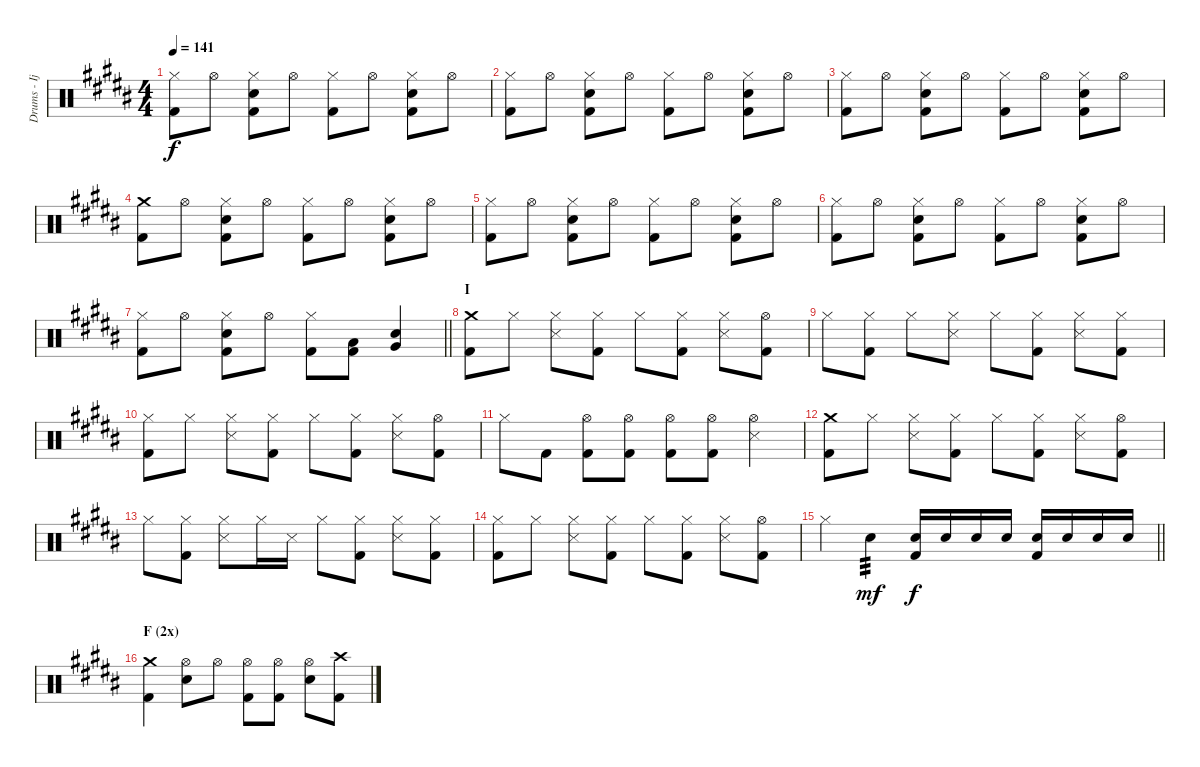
\track ("Drums - Ijichi" "Drums - Ij") {instrument percussion}
\staff {score}
\articulation defaults
\ts (4 4)
\tempo 141
\clef neutral
\ks b
("Hi-Hat (closed)" "Kick (hit) 2").8{dy f} "Hi-Hat (open)".8 ("Hi-Hat (closed)" "Electric Snare (hit)" "Kick (hit) 2").8 "Hi-Hat (open)".8 ("Hi-Hat (closed)" "Kick (hit) 2").8 "Hi-Hat (open)".8 ("Hi-Hat (closed)" "Electric Snare (hit)" "Kick (hit) 2").8 "Hi-Hat (open)".8 |
("Hi-Hat (closed)" "Kick (hit) 2").8 "Hi-Hat (open)".8 ("Hi-Hat (closed)" "Electric Snare (hit)" "Kick (hit) 2").8 "Hi-Hat (open)".8 ("Hi-Hat (closed)" "Kick (hit) 2").8 "Hi-Hat (open)".8 ("Hi-Hat (closed)" "Electric Snare (hit)" "Kick (hit) 2").8 "Hi-Hat (open)".8 |
("Hi-Hat (closed)" "Kick (hit) 2").8 "Hi-Hat (open)".8 ("Hi-Hat (closed)" "Electric Snare (hit)" "Kick (hit) 2").8 "Hi-Hat (open)".8 ("Hi-Hat (closed)" "Kick (hit) 2").8 "Hi-Hat (open)".8 ("Hi-Hat (closed)" "Electric Snare (hit)" "Kick (hit) 2").8 "Hi-Hat (open)".8 |
("Crash medium (hit)" "Kick (hit) 2").8 "Hi-Hat (open)".8 ("Hi-Hat (closed)" "Electric Snare (hit)" "Kick (hit) 2").8 "Hi-Hat (open)".8 ("Hi-Hat (closed)" "Kick (hit) 2").8 "Hi-Hat (open)".8 ("Hi-Hat (closed)" "Electric Snare (hit)" "Kick (hit) 2").8 "Hi-Hat (open)".8 |
("Hi-Hat (closed)" "Kick (hit) 2").8 "Hi-Hat (open)".8 ("Hi-Hat (closed)" "Electric Snare (hit)" "Kick (hit) 2").8 "Hi-Hat (open)".8 ("Hi-Hat (closed)" "Kick (hit) 2").8 "Hi-Hat (open)".8 ("Hi-Hat (closed)" "Electric Snare (hit)" "Kick (hit) 2").8 "Hi-Hat (open)".8 |
("Hi-Hat (closed)" "Kick (hit) 2").8 "Hi-Hat (open)".8 ("Hi-Hat (closed)" "Electric Snare (hit)" "Kick (hit) 2").8 "Hi-Hat (open)".8 ("Hi-Hat (closed)" "Kick (hit) 2").8 "Hi-Hat (open)".8 ("Hi-Hat (closed)" "Electric Snare (hit)" "Kick (hit) 2").8 "Hi-Hat (open)".8 |
\barLineRight lightlight
("Hi-Hat (closed)" "Kick (hit) 2").8 "Hi-Hat (open)".8 ("Hi-Hat (closed)" "Electric Snare (hit)" "Kick (hit) 2").8 "Hi-Hat (open)".8 ("Hi-Hat (closed)" "Kick (hit) 2").8 ("Low Tom (hit)" "Kick (hit) 2").8 ("Electric Snare (hit)" "Very Low Tom (hit)").4 |
\section ("" "I")
("Crash medium (hit)" "Kick (hit) 2").8 "Hi-Hat (closed)".8 ("Hi-Hat (closed)" "Snare (side stick) 3").8 ("Hi-Hat (closed)" "Kick (hit) 2").8 "Hi-Hat (closed)".8 ("Hi-Hat (closed)" "Kick (hit) 2").8 ("Hi-Hat (closed)" "Snare (side stick) 3").8 ("Hi-Hat (open)" "Kick (hit) 2").8 |
"Hi-Hat (closed)".8 ("Hi-Hat (closed)" "Kick (hit) 2").8 "Hi-Hat (closed)".8 ("Hi-Hat (closed)" "Snare (side stick) 3").8 "Hi-Hat (closed)".8 ("Hi-Hat (closed)" "Kick (hit) 2").8 ("Hi-Hat (closed)" "Snare (side stick) 3").8 ("Hi-Hat (closed)" "Kick (hit) 2").8 |
("Hi-Hat (closed)" "Kick (hit) 2").8 "Hi-Hat (closed)".8 ("Hi-Hat (closed)" "Snare (side stick) 3").8 ("Hi-Hat (closed)" "Kick (hit) 2").8 "Hi-Hat (closed)".8 ("Hi-Hat (closed)" "Kick (hit) 2").8 ("Hi-Hat (closed)" "Snare (side stick) 3").8 ("Hi-Hat (open)" "Kick (hit) 2").8 |
"Hi-Hat (closed)".8 "Kick (hit) 2".8 ("Hi-Hat (open)" "Kick (hit) 2").8 ("Hi-Hat (open)" "Kick (hit) 2").8 ("Hi-Hat (open)" "Kick (hit) 2").8 ("Hi-Hat (open)" "Kick (hit) 2").8 ("Hi-Hat (open)" "Snare (side stick) 3").4 |
("Crash medium (hit)" "Kick (hit) 2").8 "Hi-Hat (closed)".8 ("Hi-Hat (closed)" "Snare (side stick) 3").8 ("Hi-Hat (closed)" "Kick (hit) 2").8 "Hi-Hat (closed)".8 ("Hi-Hat (closed)" "Kick (hit) 2").8 ("Hi-Hat (closed)" "Snare (side stick) 3").8 ("Hi-Hat (open)" "Kick (hit) 2").8 |
"Hi-Hat (closed)".8 ("Hi-Hat (closed)" "Kick (hit) 2").8 ("Hi-Hat (closed)" "Snare (side stick) 3").8 "Hi-Hat (closed)".16 "Snare (side stick) 3".16 "Hi-Hat (closed)".8 ("Hi-Hat (closed)" "Kick (hit) 2").8 ("Hi-Hat (closed)" "Snare (side stick) 3").8 ("Hi-Hat (closed)" "Kick (hit) 2").8 |
("Hi-Hat (closed)" "Kick (hit) 2").8 "Hi-Hat (closed)".8 ("Hi-Hat (closed)" "Snare (side stick) 3").8 ("Hi-Hat (closed)" "Kick (hit) 2").8 "Hi-Hat (closed)".8 ("Hi-Hat (closed)" "Kick (hit) 2").8 ("Hi-Hat (closed)" "Snare (side stick) 3").8 ("Hi-Hat (open)" "Kick (hit) 2").8 |
\barLineRight lightlight "Hi-Hat (closed)".4 "Electric Snare (hit)".4{tp 3 dy mf}
("Electric Snare (hit)" "Kick (hit) 2").16{dy f} "Electric Snare (hit)".16 "Electric Snare (hit)".16 "Electric Snare (hit)".16 ("Electric Snare (hit)" "Kick (hit) 2").16 "Electric Snare (hit)".16 "Electric Snare (hit)".16 "Electric Snare (hit)".16 |
\section ("" "F (2x)")
("Crash medium (hit)" "Kick (hit) 2").4 ("Hi-Hat (open)" "Electric Snare (hit)").8 "Hi-Hat (open)".8 ("Hi-Hat (open)" "Kick (hit) 2").8 ("Hi-Hat (open)" "Kick (hit) 2").8 ("Hi-Hat (open)" "Electric Snare (hit)").8 ("Crash high (hit)" "Kick (hit) 2").8
